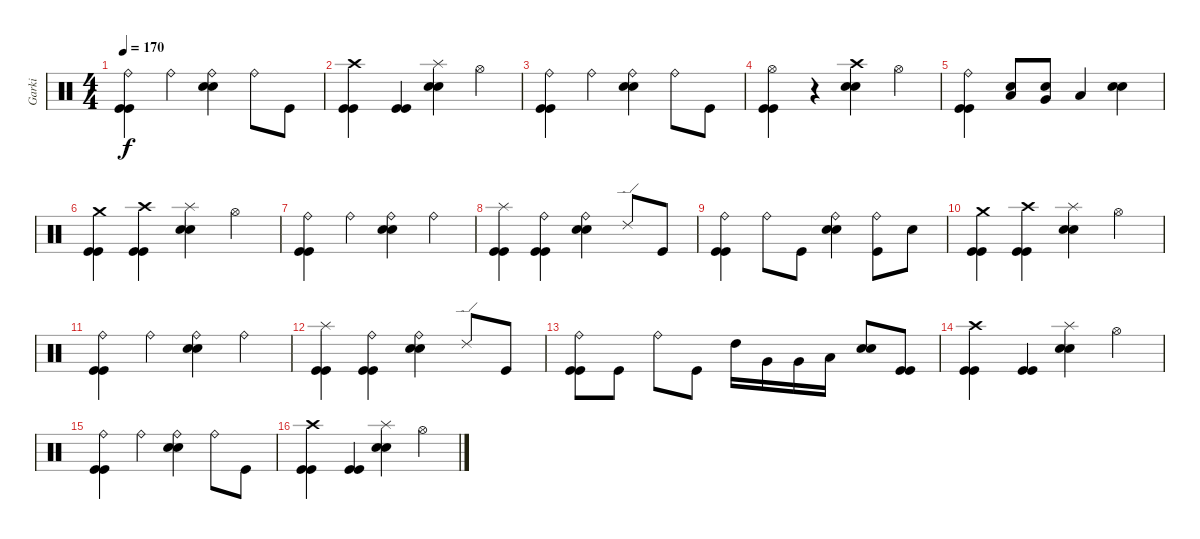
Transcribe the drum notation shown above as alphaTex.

\track ("Garki" "Garki") {instrument percussion}
\staff {score}
\articulation defaults
\ts (4 4)
\tempo 170
\clef neutral
\ks c
("Kick (hit)" "Kick (hit)" "Ride (bell)").4{dy f} "Ride (bell)".4 ("Electric Snare (hit)" "Electric Snare (hit)" "Ride (bell)").4 "Ride (bell)".8 "Kick (hit)".8 |
("Kick (hit)" "Kick (hit)" "Crash high (hit)").4 ("Kick (hit)" "Kick (hit)").4 ("Electric Snare (hit)" "Electric Snare (hit)" "Splash (hit)").4 "Hi-Hat (open)".4 |
("Kick (hit)" "Kick (hit)" "Ride (bell)").4 "Ride (bell)".4 ("Electric Snare (hit)" "Electric Snare (hit)" "Ride (bell)").4 "Ride (bell)".8 "Kick (hit)".8 |
("Kick (hit)" "Kick (hit)" "Hi-Hat (open)").4 r.4 ("Electric Snare (hit)" "Electric Snare (hit)" "Crash high (hit)").4 "Hi-Hat (open)".4 |
("Kick (hit)" "Kick (hit)" "Ride (bell)").4 ("Low Tom (hit)" "Electric Snare (hit)").8 ("Very Low Tom (hit)" "Electric Snare (hit)").8 "Low Floor Tom (hit)".4 ("Electric Snare (hit)" "Electric Snare (hit)").4 |
("Kick (hit)" "Kick (hit)" "Crash medium (hit)").4 ("Kick (hit)" "Kick (hit)" "Crash high (hit)").4 ("Electric Snare (hit)" "Electric Snare (hit)" "Splash (hit)").4 "Hi-Hat (open)".4 |
("Kick (hit)" "Kick (hit)" "Ride (bell)").4 "Ride (bell)".4 ("Electric Snare (hit)" "Electric Snare (hit)" "Ride (bell)").4 "Ride (bell)".4 |
("Kick (hit)" "Kick (hit)" "Splash (hit)").4 ("Kick (hit)" "Kick (hit)" "Ride (bell)").4 ("Electric Snare (hit)" "Electric Snare (hit)" "Ride (bell)").4 "Ride (edge) 2".8 "Kick (hit)".8 |
("Kick (hit)" "Kick (hit)" "Ride (bell)").4 "Ride (bell)".8 "Kick (hit)".8 ("Electric Snare (hit)" "Electric Snare (hit)" "Ride (bell)").4 ("Kick (hit)" "Ride (bell)").8 "Electric Snare (hit)".8 |
("Kick (hit)" "Kick (hit)" "Crash medium (hit)").4 ("Kick (hit)" "Kick (hit)" "Crash high (hit)").4 ("Electric Snare (hit)" "Electric Snare (hit)" "Splash (hit)").4 "Hi-Hat (open)".4 |
("Kick (hit)" "Kick (hit)" "Ride (bell)").4 "Ride (bell)".4 ("Electric Snare (hit)" "Electric Snare (hit)" "Ride (bell)").4 "Ride (bell)".4 |
("Kick (hit)" "Kick (hit)" "Splash (hit)").4 ("Kick (hit)" "Kick (hit)" "Ride (bell)").4 ("Electric Snare (hit)" "Electric Snare (hit)" "Ride (bell)").4 "Ride (edge) 2".8 "Kick (hit)".8 |
("Kick (hit)" "Kick (hit)" "Ride (bell)").8 "Kick (hit)".8 "Ride (bell)".8 "Kick (hit)".8 "High Tom (hit)".16 "Very Low Tom (hit)".16 "Very Low Tom (hit)".16 "Low Floor Tom (hit)".16 ("Electric Snare (hit)" "Electric Snare (hit)").8 ("Kick (hit)" "Kick (hit)").8 |
("Kick (hit)" "Kick (hit)" "Crash high (hit)").4 ("Kick (hit)" "Kick (hit)").4 ("Electric Snare (hit)" "Electric Snare (hit)" "Splash (hit)").4 "Hi-Hat (open)".4 |
("Kick (hit)" "Kick (hit)" "Ride (bell)").4 "Ride (bell)".4 ("Electric Snare (hit)" "Electric Snare (hit)" "Ride (bell)").4 "Ride (bell)".8 "Kick (hit)".8 |
("Kick (hit)" "Kick (hit)" "Crash high (hit)").4 ("Kick (hit)" "Kick (hit)").4 ("Electric Snare (hit)" "Electric Snare (hit)" "Splash (hit)").4 "Hi-Hat (open)".4
